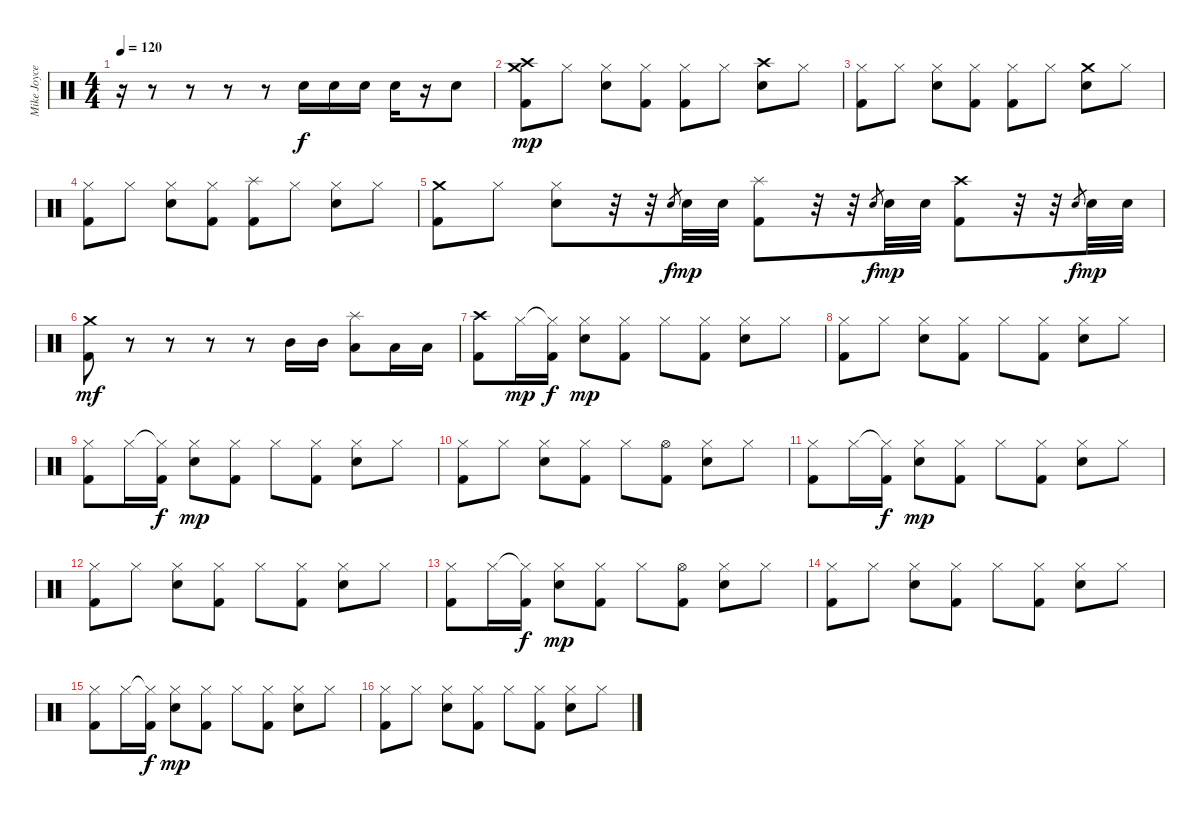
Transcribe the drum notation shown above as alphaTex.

\track ("Mike Joyce" "Mike Joyce") {instrument percussion}
\staff {score}
\articulation defaults
\ts (4 4)
\tempo 120
\clef neutral
\ks c
r.16{dy f} r.8 r.8 r.8 r.8 "Electric Snare (hit)".16 "Electric Snare (hit)".16 "Electric Snare (hit)".16 "Electric Snare (hit)".16 r.16 "Electric Snare (hit)".8 |
("Crash high (hit)" "Crash medium (hit)" "Kick (hit) 2").8{dy mp} "Hi-Hat (closed)".8 ("Hi-Hat (closed)" "Electric Snare (hit)").8 ("Hi-Hat (closed)" "Kick (hit) 2").8 ("Hi-Hat (closed)" "Kick (hit) 2").8 "Hi-Hat (closed)".8 ("Crash high (hit)" "Electric Snare (hit)").8 "Hi-Hat (closed)".8 |
("Hi-Hat (closed)" "Kick (hit) 2").8 "Hi-Hat (closed)".8 ("Hi-Hat (closed)" "Electric Snare (hit)").8 ("Hi-Hat (closed)" "Kick (hit) 2").8 ("Hi-Hat (closed)" "Kick (hit) 2").8 "Hi-Hat (closed)".8 ("Crash medium (hit)" "Electric Snare (hit)").8 "Hi-Hat (closed)".8 |
("Hi-Hat (closed)" "Kick (hit) 2").8 "Hi-Hat (closed)".8 ("Hi-Hat (closed)" "Electric Snare (hit)").8 ("Hi-Hat (closed)" "Kick (hit) 2").8 ("Splash (hit)" "Kick (hit) 2").8 "Hi-Hat (closed)".8 ("Hi-Hat (closed)" "Electric Snare (hit)").8 "Hi-Hat (closed)".8 |
("Crash medium (hit)" "Kick (hit) 2").8 "Hi-Hat (closed)".8 ("Hi-Hat (closed)" "Electric Snare (hit)").8 r.32 r.32 "Electric Snare (hit)".8{gr dy f} "Electric Snare (hit)".32{dy mp} "Electric Snare (hit)".32 ("Splash (hit)" "Kick (hit) 2").8 r.32 r.32 "Electric Snare (hit)".8{gr dy f} "Electric Snare (hit)".32{dy mp} "Electric Snare (hit)".32 ("Crash high (hit)" "Kick (hit) 2").8 r.32 r.32 "Electric Snare (hit)".8{gr dy f} "Electric Snare (hit)".32{dy mp} "Electric Snare (hit)".32 |
("Crash medium (hit)" "Kick (hit) 2").8{dy mf} r.8 r.8 r.8 r.8 "Mid Tom (hit)".16 "Mid Tom (hit)".16 ("Splash (hit)" "Low Tom (hit)").8 "Low Floor Tom (hit)".16 "Low Tom (hit)".16 |
("Crash high (hit)" "Kick (hit) 2").8 "Hi-Hat (closed)".16{dy mp} ("Hi-Hat (closed)"{t} "Kick (hit) 2").16{dy f} ("Hi-Hat (closed)" "Electric Snare (hit)").8{dy mp} ("Hi-Hat (closed)" "Kick (hit) 2").8 "Hi-Hat (closed)".8 ("Hi-Hat (closed)" "Kick (hit) 2").8 ("Hi-Hat (closed)" "Electric Snare (hit)").8 "Hi-Hat (closed)".8 |
("Hi-Hat (closed)" "Kick (hit) 2").8 "Hi-Hat (closed)".8 ("Hi-Hat (closed)" "Electric Snare (hit)").8 ("Hi-Hat (closed)" "Kick (hit) 2").8 "Hi-Hat (closed)".8 ("Hi-Hat (closed)" "Kick (hit) 2").8 ("Hi-Hat (closed)" "Electric Snare (hit)").8 "Hi-Hat (closed)".8 |
("Hi-Hat (closed)" "Kick (hit) 2").8 "Hi-Hat (closed)".16 ("Hi-Hat (closed)"{t} "Kick (hit) 2").16{dy f} ("Hi-Hat (closed)" "Electric Snare (hit)").8{dy mp} ("Hi-Hat (closed)" "Kick (hit) 2").8 "Hi-Hat (closed)".8 ("Hi-Hat (closed)" "Kick (hit) 2").8 ("Hi-Hat (closed)" "Electric Snare (hit)").8 "Hi-Hat (closed)".8 |
("Hi-Hat (closed)" "Kick (hit) 2").8 "Hi-Hat (closed)".8 ("Hi-Hat (closed)" "Electric Snare (hit)").8 ("Hi-Hat (closed)" "Kick (hit) 2").8 "Hi-Hat (closed)".8 ("Hi-Hat (open)" "Kick (hit) 2").8 ("Hi-Hat (closed)" "Electric Snare (hit)").8 "Hi-Hat (closed)".8 |
("Hi-Hat (closed)" "Kick (hit) 2").8 "Hi-Hat (closed)".16 ("Hi-Hat (closed)"{t} "Kick (hit) 2").16{dy f} ("Hi-Hat (closed)" "Electric Snare (hit)").8{dy mp} ("Hi-Hat (closed)" "Kick (hit) 2").8 "Hi-Hat (closed)".8 ("Hi-Hat (closed)" "Kick (hit) 2").8 ("Hi-Hat (closed)" "Electric Snare (hit)").8 "Hi-Hat (closed)".8 |
("Hi-Hat (closed)" "Kick (hit) 2").8 "Hi-Hat (closed)".8 ("Hi-Hat (closed)" "Electric Snare (hit)").8 ("Hi-Hat (closed)" "Kick (hit) 2").8 "Hi-Hat (closed)".8 ("Hi-Hat (closed)" "Kick (hit) 2").8 ("Hi-Hat (closed)" "Electric Snare (hit)").8 "Hi-Hat (closed)".8 |
("Hi-Hat (closed)" "Kick (hit) 2").8 "Hi-Hat (closed)".16 ("Hi-Hat (closed)"{t} "Kick (hit) 2").16{dy f} ("Hi-Hat (closed)" "Electric Snare (hit)").8{dy mp} ("Hi-Hat (closed)" "Kick (hit) 2").8 "Hi-Hat (closed)".8 ("Hi-Hat (open)" "Kick (hit) 2").8 ("Hi-Hat (closed)" "Electric Snare (hit)").8 "Hi-Hat (closed)".8 |
("Hi-Hat (closed)" "Kick (hit) 2").8 "Hi-Hat (closed)".8 ("Hi-Hat (closed)" "Electric Snare (hit)").8 ("Hi-Hat (closed)" "Kick (hit) 2").8 "Hi-Hat (closed)".8 ("Hi-Hat (closed)" "Kick (hit) 2").8 ("Hi-Hat (closed)" "Electric Snare (hit)").8 "Hi-Hat (closed)".8 |
("Hi-Hat (closed)" "Kick (hit) 2").8 "Hi-Hat (closed)".16 ("Hi-Hat (closed)"{t} "Kick (hit) 2").16{dy f} ("Hi-Hat (closed)" "Electric Snare (hit)").8{dy mp} ("Hi-Hat (closed)" "Kick (hit) 2").8 "Hi-Hat (closed)".8 ("Hi-Hat (closed)" "Kick (hit) 2").8 ("Hi-Hat (closed)" "Electric Snare (hit)").8 "Hi-Hat (closed)".8 |
("Hi-Hat (closed)" "Kick (hit) 2").8 "Hi-Hat (closed)".8 ("Hi-Hat (closed)" "Electric Snare (hit)").8 ("Hi-Hat (closed)" "Kick (hit) 2").8 "Hi-Hat (closed)".8 ("Hi-Hat (closed)" "Kick (hit) 2").8 ("Hi-Hat (closed)" "Electric Snare (hit)").8 "Hi-Hat (closed)".8
